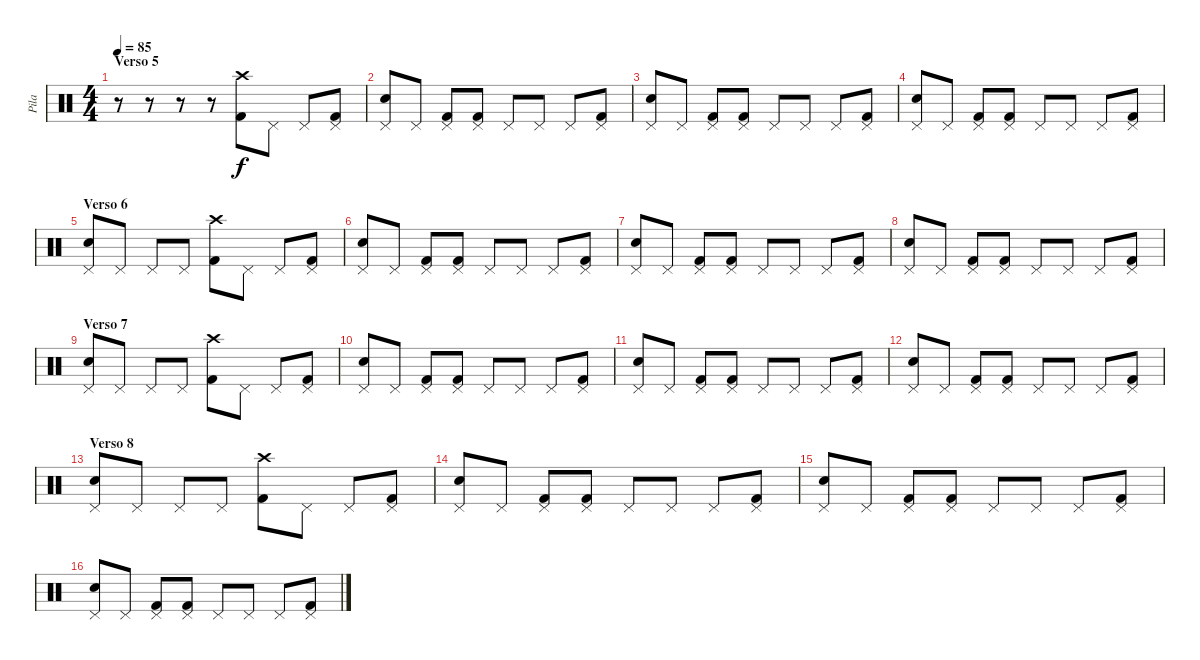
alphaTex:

\track ("Pila" "Pila") {instrument percussion}
\staff {score}
\articulation defaults
\ts (4 4)
\section ("" "Verso 5")
\tempo 85
\clef neutral
\ks c
r.8{dy f} r.8 r.8 r.8 ("Crash high (hit)" "Kick (hit) 2").8 "Pedal Hi-Hat (hit)".8 "Pedal Hi-Hat (hit)".8 ("Pedal Hi-Hat (hit)" "Kick (hit) 2").8 |
("Pedal Hi-Hat (hit)" "Electric Snare (hit)").8 "Pedal Hi-Hat (hit)".8 ("Pedal Hi-Hat (hit)" "Kick (hit) 2").8 ("Pedal Hi-Hat (hit)" "Kick (hit) 2").8 "Pedal Hi-Hat (hit)".8 "Pedal Hi-Hat (hit)".8 "Pedal Hi-Hat (hit)".8 ("Pedal Hi-Hat (hit)" "Kick (hit) 2").8 |
("Pedal Hi-Hat (hit)" "Electric Snare (hit)").8 "Pedal Hi-Hat (hit)".8 ("Pedal Hi-Hat (hit)" "Kick (hit) 2").8 ("Pedal Hi-Hat (hit)" "Kick (hit) 2").8 "Pedal Hi-Hat (hit)".8 "Pedal Hi-Hat (hit)".8 "Pedal Hi-Hat (hit)".8 ("Pedal Hi-Hat (hit)" "Kick (hit) 2").8 |
("Pedal Hi-Hat (hit)" "Electric Snare (hit)").8 "Pedal Hi-Hat (hit)".8 ("Pedal Hi-Hat (hit)" "Kick (hit) 2").8 ("Pedal Hi-Hat (hit)" "Kick (hit) 2").8 "Pedal Hi-Hat (hit)".8 "Pedal Hi-Hat (hit)".8 "Pedal Hi-Hat (hit)".8 ("Pedal Hi-Hat (hit)" "Kick (hit) 2").8 |
\section ("" "Verso 6")
("Pedal Hi-Hat (hit)" "Electric Snare (hit)").8 "Pedal Hi-Hat (hit)".8 "Pedal Hi-Hat (hit)".8 "Pedal Hi-Hat (hit)".8 ("Crash high (hit)" "Kick (hit) 2").8 "Pedal Hi-Hat (hit)".8 "Pedal Hi-Hat (hit)".8 ("Pedal Hi-Hat (hit)" "Kick (hit) 2").8 |
("Pedal Hi-Hat (hit)" "Electric Snare (hit)").8 "Pedal Hi-Hat (hit)".8 ("Pedal Hi-Hat (hit)" "Kick (hit) 2").8 ("Pedal Hi-Hat (hit)" "Kick (hit) 2").8 "Pedal Hi-Hat (hit)".8 "Pedal Hi-Hat (hit)".8 "Pedal Hi-Hat (hit)".8 ("Pedal Hi-Hat (hit)" "Kick (hit) 2").8 |
("Pedal Hi-Hat (hit)" "Electric Snare (hit)").8 "Pedal Hi-Hat (hit)".8 ("Pedal Hi-Hat (hit)" "Kick (hit) 2").8 ("Pedal Hi-Hat (hit)" "Kick (hit) 2").8 "Pedal Hi-Hat (hit)".8 "Pedal Hi-Hat (hit)".8 "Pedal Hi-Hat (hit)".8 ("Pedal Hi-Hat (hit)" "Kick (hit) 2").8 |
("Pedal Hi-Hat (hit)" "Electric Snare (hit)").8 "Pedal Hi-Hat (hit)".8 ("Pedal Hi-Hat (hit)" "Kick (hit) 2").8 ("Pedal Hi-Hat (hit)" "Kick (hit) 2").8 "Pedal Hi-Hat (hit)".8 "Pedal Hi-Hat (hit)".8 "Pedal Hi-Hat (hit)".8 ("Pedal Hi-Hat (hit)" "Kick (hit) 2").8 |
\section ("" "Verso 7")
("Pedal Hi-Hat (hit)" "Electric Snare (hit)").8 "Pedal Hi-Hat (hit)".8 "Pedal Hi-Hat (hit)".8 "Pedal Hi-Hat (hit)".8 ("Crash high (hit)" "Kick (hit) 2").8 "Pedal Hi-Hat (hit)".8 "Pedal Hi-Hat (hit)".8 ("Pedal Hi-Hat (hit)" "Kick (hit) 2").8 |
("Pedal Hi-Hat (hit)" "Electric Snare (hit)").8 "Pedal Hi-Hat (hit)".8 ("Pedal Hi-Hat (hit)" "Kick (hit) 2").8 ("Pedal Hi-Hat (hit)" "Kick (hit) 2").8 "Pedal Hi-Hat (hit)".8 "Pedal Hi-Hat (hit)".8 "Pedal Hi-Hat (hit)".8 ("Pedal Hi-Hat (hit)" "Kick (hit) 2").8 |
("Pedal Hi-Hat (hit)" "Electric Snare (hit)").8 "Pedal Hi-Hat (hit)".8 ("Pedal Hi-Hat (hit)" "Kick (hit) 2").8 ("Pedal Hi-Hat (hit)" "Kick (hit) 2").8 "Pedal Hi-Hat (hit)".8 "Pedal Hi-Hat (hit)".8 "Pedal Hi-Hat (hit)".8 ("Pedal Hi-Hat (hit)" "Kick (hit) 2").8 |
("Pedal Hi-Hat (hit)" "Electric Snare (hit)").8 "Pedal Hi-Hat (hit)".8 ("Pedal Hi-Hat (hit)" "Kick (hit) 2").8 ("Pedal Hi-Hat (hit)" "Kick (hit) 2").8 "Pedal Hi-Hat (hit)".8 "Pedal Hi-Hat (hit)".8 "Pedal Hi-Hat (hit)".8 ("Pedal Hi-Hat (hit)" "Kick (hit) 2").8 |
\section ("" "Verso 8")
("Pedal Hi-Hat (hit)" "Electric Snare (hit)").8 "Pedal Hi-Hat (hit)".8 "Pedal Hi-Hat (hit)".8 "Pedal Hi-Hat (hit)".8 ("Crash high (hit)" "Kick (hit) 2").8 "Pedal Hi-Hat (hit)".8 "Pedal Hi-Hat (hit)".8 ("Pedal Hi-Hat (hit)" "Kick (hit) 2").8 |
("Pedal Hi-Hat (hit)" "Electric Snare (hit)").8 "Pedal Hi-Hat (hit)".8 ("Pedal Hi-Hat (hit)" "Kick (hit) 2").8 ("Pedal Hi-Hat (hit)" "Kick (hit) 2").8 "Pedal Hi-Hat (hit)".8 "Pedal Hi-Hat (hit)".8 "Pedal Hi-Hat (hit)".8 ("Pedal Hi-Hat (hit)" "Kick (hit) 2").8 |
("Pedal Hi-Hat (hit)" "Electric Snare (hit)").8 "Pedal Hi-Hat (hit)".8 ("Pedal Hi-Hat (hit)" "Kick (hit) 2").8 ("Pedal Hi-Hat (hit)" "Kick (hit) 2").8 "Pedal Hi-Hat (hit)".8 "Pedal Hi-Hat (hit)".8 "Pedal Hi-Hat (hit)".8 ("Pedal Hi-Hat (hit)" "Kick (hit) 2").8 |
("Pedal Hi-Hat (hit)" "Electric Snare (hit)").8 "Pedal Hi-Hat (hit)".8 ("Pedal Hi-Hat (hit)" "Kick (hit) 2").8 ("Pedal Hi-Hat (hit)" "Kick (hit) 2").8 "Pedal Hi-Hat (hit)".8 "Pedal Hi-Hat (hit)".8 "Pedal Hi-Hat (hit)".8 ("Pedal Hi-Hat (hit)" "Kick (hit) 2").8
